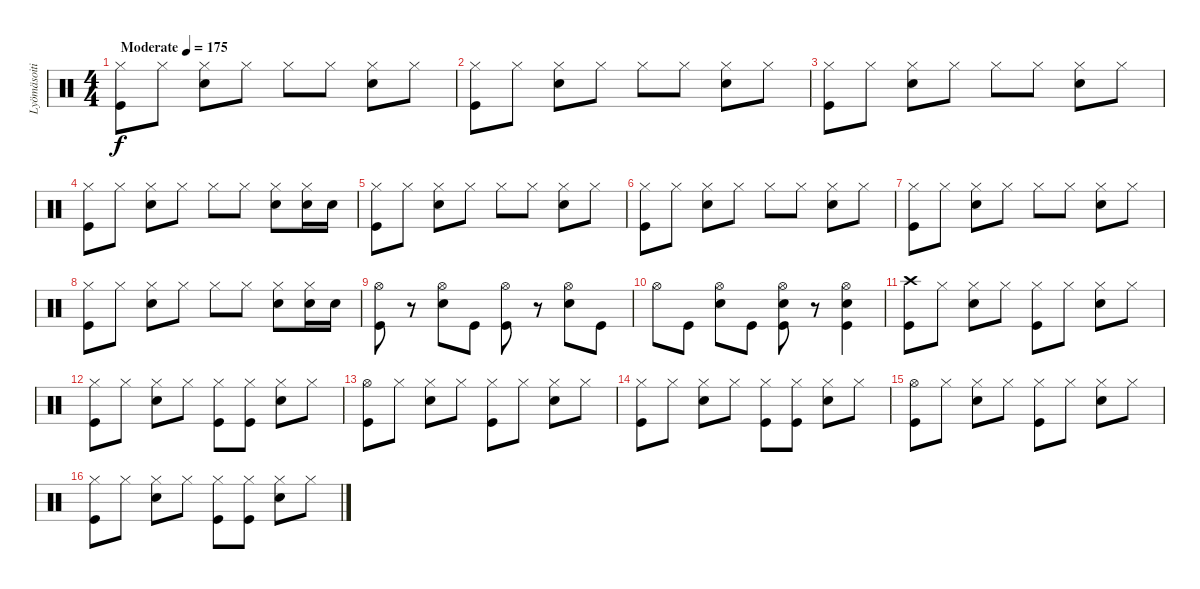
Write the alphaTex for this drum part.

\track ("Lyömäsoitin" "Lyömäsoiti") {instrument percussion}
\staff {score}
\articulation defaults
\ts (4 4)
\tempo (175 "Moderate")
\clef neutral
\ks c
("Hi-Hat (closed)" "Kick (hit)").8{dy f} "Hi-Hat (closed)".8 ("Hi-Hat (closed)" "Electric Snare (hit)").8 "Hi-Hat (closed)".8 "Hi-Hat (closed)".8 "Hi-Hat (closed)".8 ("Hi-Hat (closed)" "Electric Snare (hit)").8 "Hi-Hat (closed)".8 |
("Hi-Hat (closed)" "Kick (hit)").8 "Hi-Hat (closed)".8 ("Hi-Hat (closed)" "Electric Snare (hit)").8 "Hi-Hat (closed)".8 "Hi-Hat (closed)".8 "Hi-Hat (closed)".8 ("Hi-Hat (closed)" "Electric Snare (hit)").8 "Hi-Hat (closed)".8 |
("Hi-Hat (closed)" "Kick (hit)").8 "Hi-Hat (closed)".8 ("Hi-Hat (closed)" "Electric Snare (hit)").8 "Hi-Hat (closed)".8 "Hi-Hat (closed)".8 "Hi-Hat (closed)".8 ("Hi-Hat (closed)" "Electric Snare (hit)").8 "Hi-Hat (closed)".8 |
("Hi-Hat (closed)" "Kick (hit)").8 "Hi-Hat (closed)".8 ("Hi-Hat (closed)" "Electric Snare (hit)").8 "Hi-Hat (closed)".8 "Hi-Hat (closed)".8 "Hi-Hat (closed)".8 ("Hi-Hat (closed)" "Electric Snare (hit)").8 ("Hi-Hat (closed)" "Electric Snare (hit)").16 "Electric Snare (hit)".16 |
("Hi-Hat (closed)" "Kick (hit)").8 "Hi-Hat (closed)".8 ("Hi-Hat (closed)" "Electric Snare (hit)").8 "Hi-Hat (closed)".8 "Hi-Hat (closed)".8 "Hi-Hat (closed)".8 ("Hi-Hat (closed)" "Electric Snare (hit)").8 "Hi-Hat (closed)".8 |
("Hi-Hat (closed)" "Kick (hit)").8 "Hi-Hat (closed)".8 ("Hi-Hat (closed)" "Electric Snare (hit)").8 "Hi-Hat (closed)".8 "Hi-Hat (closed)".8 "Hi-Hat (closed)".8 ("Hi-Hat (closed)" "Electric Snare (hit)").8 "Hi-Hat (closed)".8 |
("Hi-Hat (closed)" "Kick (hit)").8 "Hi-Hat (closed)".8 ("Hi-Hat (closed)" "Electric Snare (hit)").8 "Hi-Hat (closed)".8 "Hi-Hat (closed)".8 "Hi-Hat (closed)".8 ("Hi-Hat (closed)" "Electric Snare (hit)").8 "Hi-Hat (closed)".8 |
("Hi-Hat (closed)" "Kick (hit)").8 "Hi-Hat (closed)".8 ("Hi-Hat (closed)" "Electric Snare (hit)").8 "Hi-Hat (closed)".8 "Hi-Hat (closed)".8 "Hi-Hat (closed)".8 ("Hi-Hat (closed)" "Electric Snare (hit)").8 ("Hi-Hat (closed)" "Electric Snare (hit)").16 "Electric Snare (hit)".16 |
("Hi-Hat (open)" "Kick (hit)").8 r.8 ("Hi-Hat (open)" "Electric Snare (hit)").8 "Kick (hit)".8 ("Hi-Hat (open)" "Kick (hit)").8 r.8 ("Hi-Hat (open)" "Electric Snare (hit)").8 "Kick (hit)".8 |
"Hi-Hat (open)".8 "Kick (hit)".8 ("Hi-Hat (open)" "Electric Snare (hit)").8 "Kick (hit)".8 ("Hi-Hat (open)" "Electric Snare (hit)" "Kick (hit)").8 r.8 ("Hi-Hat (open)" "Electric Snare (hit)" "Kick (hit)").4 |
("Crash high (hit)" "Kick (hit)").8 "Hi-Hat (closed)".8 ("Hi-Hat (closed)" "Electric Snare (hit)").8 "Hi-Hat (closed)".8 ("Hi-Hat (closed)" "Kick (hit)").8 "Hi-Hat (closed)".8 ("Hi-Hat (closed)" "Electric Snare (hit)").8 "Hi-Hat (closed)".8 |
("Hi-Hat (closed)" "Kick (hit)").8 "Hi-Hat (closed)".8 ("Hi-Hat (closed)" "Electric Snare (hit)").8 "Hi-Hat (closed)".8 ("Hi-Hat (closed)" "Kick (hit)").8 ("Hi-Hat (closed)" "Kick (hit)").8 ("Hi-Hat (closed)" "Electric Snare (hit)").8 "Hi-Hat (closed)".8 |
("Hi-Hat (open)" "Kick (hit)").8 "Hi-Hat (closed)".8 ("Hi-Hat (closed)" "Electric Snare (hit)").8 "Hi-Hat (closed)".8 ("Hi-Hat (closed)" "Kick (hit)").8 "Hi-Hat (closed)".8 ("Hi-Hat (closed)" "Electric Snare (hit)").8 "Hi-Hat (closed)".8 |
("Hi-Hat (closed)" "Kick (hit)").8 "Hi-Hat (closed)".8 ("Hi-Hat (closed)" "Electric Snare (hit)").8 "Hi-Hat (closed)".8 ("Hi-Hat (closed)" "Kick (hit)").8 ("Hi-Hat (closed)" "Kick (hit)").8 ("Hi-Hat (closed)" "Electric Snare (hit)").8 "Hi-Hat (closed)".8 |
("Hi-Hat (open)" "Kick (hit)").8 "Hi-Hat (closed)".8 ("Hi-Hat (closed)" "Electric Snare (hit)").8 "Hi-Hat (closed)".8 ("Hi-Hat (closed)" "Kick (hit)").8 "Hi-Hat (closed)".8 ("Hi-Hat (closed)" "Electric Snare (hit)").8 "Hi-Hat (closed)".8 |
("Hi-Hat (closed)" "Kick (hit)").8 "Hi-Hat (closed)".8 ("Hi-Hat (closed)" "Electric Snare (hit)").8 "Hi-Hat (closed)".8 ("Hi-Hat (closed)" "Kick (hit)").8 ("Hi-Hat (closed)" "Kick (hit)").8 ("Hi-Hat (closed)" "Electric Snare (hit)").8 "Hi-Hat (closed)".8
